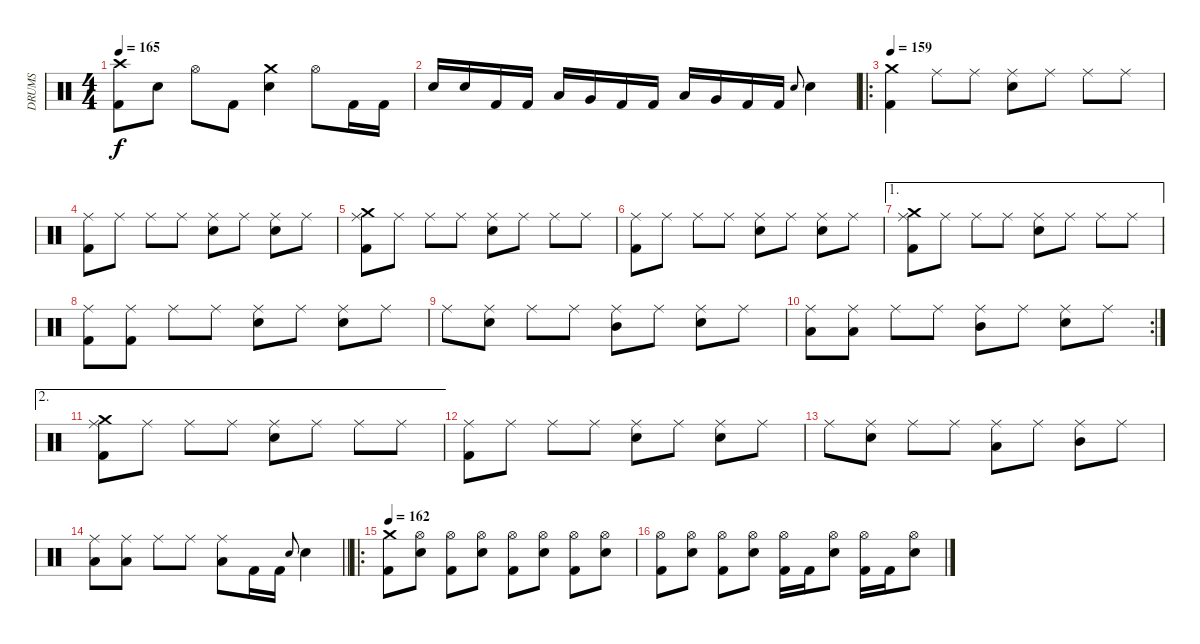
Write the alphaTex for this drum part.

\track ("DRUMS" "DRUMS") {instrument percussion}
\staff {score}
\articulation defaults
\ts (4 4)
\tempo 165
\clef neutral
\ks c
("Crash high (hit)" "Kick (hit) 2").8{dy f} "Snare (hit) 2".8 "Hi-Hat (open)".8 "Kick (hit) 2".8 ("Crash medium (hit)" "Snare (hit) 2").4 "Hi-Hat (open)".8 "Kick (hit) 2".16 "Kick (hit) 2".16 |
"Snare (hit) 2".16 "Snare (hit) 2".16 "Kick (hit) 2".16 "Kick (hit) 2".16 "Low Tom (hit)".16 "Very Low Tom (hit)".16 "Kick (hit) 2".16 "Kick (hit) 2".16 "Low Tom (hit)".16 "Very Low Tom (hit)".16 "Kick (hit) 2".16 "Kick (hit) 2".16 "Snare (hit) 2".8{gr onbeat} "Snare (hit) 2".4 |
\ro
\tempo 159
("Crash medium (hit)" "Kick (hit) 2").4 "Ride (middle)".8 "Ride (middle)".8 ("Ride (middle)" "Snare (hit) 2").8 "Ride (middle)".8 "Ride (middle)".8 "Ride (middle)".8 |
("Ride (middle)" "Kick (hit) 2").8 "Ride (middle)".8 "Ride (middle)".8 "Ride (middle)".8 ("Ride (middle)" "Snare (hit) 2").8 "Ride (middle)".8 ("Ride (middle)" "Snare (hit) 2").8 "Ride (middle)".8 |
("Crash medium (hit)" "Ride (middle)" "Kick (hit) 2").8 "Ride (middle)".8 "Ride (middle)".8 "Ride (middle)".8 ("Ride (middle)" "Snare (hit) 2").8 "Ride (middle)".8 "Ride (middle)".8 "Ride (middle)".8 |
("Ride (middle)" "Kick (hit) 2").8 "Ride (middle)".8 "Ride (middle)".8 "Ride (middle)".8 ("Ride (middle)" "Snare (hit) 2").8 "Ride (middle)".8 ("Ride (middle)" "Snare (hit) 2").8 "Ride (middle)".8 |
\ae 1
("Crash medium (hit)" "Ride (middle)" "Kick (hit) 2").8 "Ride (middle)".8 "Ride (middle)".8 "Ride (middle)".8 ("Ride (middle)" "Snare (hit) 2").8 "Ride (middle)".8 "Ride (middle)".8 "Ride (middle)".8 |
("Ride (middle)" "Kick (hit) 2").8 ("Ride (middle)" "Kick (hit) 2").8 "Ride (middle)".8 "Ride (middle)".8 ("Ride (middle)" "Snare (hit) 2").8 "Ride (middle)".8 ("Ride (middle)" "Snare (hit) 2").8 "Ride (middle)".8 |
"Ride (middle)".8 ("Ride (middle)" "Snare (hit) 2").8 "Ride (middle)".8 "Ride (middle)".8 ("Ride (middle)" "Mid Tom (hit)").8 "Ride (middle)".8 ("Ride (middle)" "Snare (hit) 2").8 "Ride (middle)".8 |
\rc 2
("Ride (middle)" "Low Tom (hit)").8 ("Ride (middle)" "Low Tom (hit)").8 "Ride (middle)".8 "Ride (middle)".8 ("Ride (middle)" "Mid Tom (hit)").8 "Ride (middle)".8 ("Ride (middle)" "Snare (hit) 2").8 "Ride (middle)".8 |
\ae 2
("Crash medium (hit)" "Ride (middle)" "Kick (hit) 2").8 "Ride (middle)".8 "Ride (middle)".8 "Ride (middle)".8 ("Ride (middle)" "Snare (hit) 2").8 "Ride (middle)".8 "Ride (middle)".8 "Ride (middle)".8 |
("Ride (middle)" "Kick (hit) 2").8 "Ride (middle)".8 "Ride (middle)".8 "Ride (middle)".8 ("Ride (middle)" "Snare (hit) 2").8 "Ride (middle)".8 ("Ride (middle)" "Snare (hit) 2").8 "Ride (middle)".8 |
"Ride (middle)".8 ("Ride (middle)" "Snare (hit) 2").8 "Ride (middle)".8 "Ride (middle)".8 ("Ride (middle)" "Low Tom (hit)").8 "Ride (middle)".8 ("Ride (middle)" "Mid Tom (hit)").8 "Ride (middle)".8 |
\barLineRight lightlight
("Ride (middle)" "Low Tom (hit)").8 ("Ride (middle)" "Low Tom (hit)").8 "Ride (middle)".8 "Ride (middle)".8 ("Ride (middle)" "Low Tom (hit)").8 "Kick (hit) 2".16 "Kick (hit) 2".16 "Snare (hit) 2".8{gr onbeat} "Snare (hit) 2".4 |
\ro
\tempo 162
("Crash medium (hit)" "Kick (hit) 2").8 ("Hi-Hat (open)" "Snare (hit) 2").8 ("Hi-Hat (open)" "Kick (hit) 2").8 ("Hi-Hat (open)" "Snare (hit) 2").8 ("Hi-Hat (open)" "Kick (hit) 2").8 ("Hi-Hat (open)" "Snare (hit) 2").8 ("Hi-Hat (open)" "Kick (hit) 2").8 ("Hi-Hat (open)" "Snare (hit) 2").8 |
("Hi-Hat (open)" "Kick (hit) 2").8 ("Hi-Hat (open)" "Snare (hit) 2").8 ("Hi-Hat (open)" "Kick (hit) 2").8 ("Hi-Hat (open)" "Snare (hit) 2").8 ("Hi-Hat (open)" "Kick (hit) 2").16 "Kick (hit) 2".16 ("Hi-Hat (open)" "Snare (hit) 2").8 ("Hi-Hat (open)" "Kick (hit) 2").16 "Kick (hit) 2".16 ("Hi-Hat (open)" "Snare (hit) 2").8
